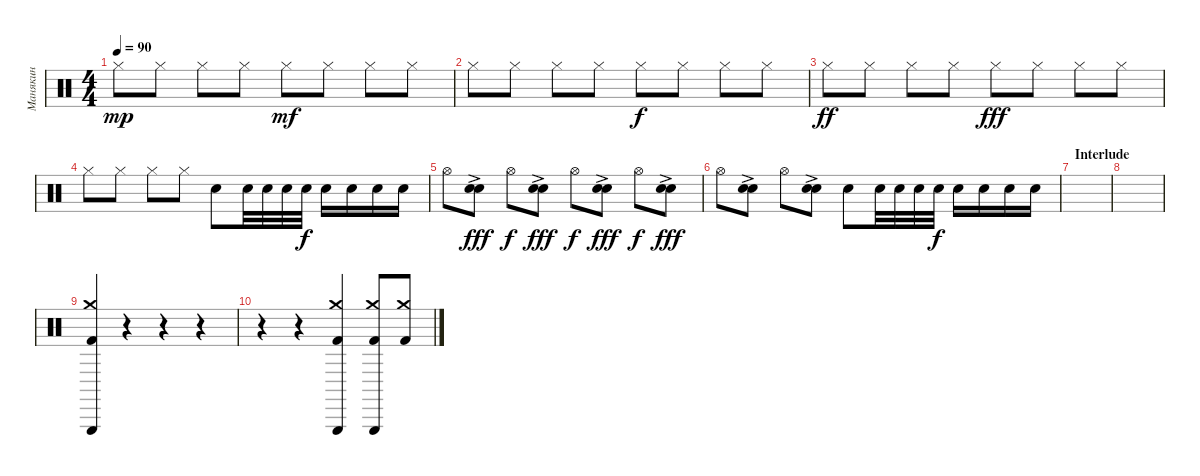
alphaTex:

\track ("Манякин" "Манякин") {instrument percussion}
\staff {score}
\articulation defaults
\ts (4 4)
\tempo 90
\clef neutral
\ks c "Hi-Hat (closed)".8{dy mp} "Hi-Hat (closed)".8 "Hi-Hat (closed)".8 "Hi-Hat (closed)".8 "Hi-Hat (closed)".8{dy mf} "Hi-Hat (closed)".8 "Hi-Hat (closed)".8 "Hi-Hat (closed)".8
|
"Hi-Hat (closed)".8 "Hi-Hat (closed)".8 "Hi-Hat (closed)".8 "Hi-Hat (closed)".8 "Hi-Hat (closed)".8{dy f} "Hi-Hat (closed)".8 "Hi-Hat (closed)".8 "Hi-Hat (closed)".8 |
"Hi-Hat (closed)".8{dy ff} "Hi-Hat (closed)".8 "Hi-Hat (closed)".8 "Hi-Hat (closed)".8 "Hi-Hat (closed)".8{dy fff} "Hi-Hat (closed)".8 "Hi-Hat (closed)".8 "Hi-Hat (closed)".8 |
"Hi-Hat (closed)".8{volume 15} "Hi-Hat (closed)".8 "Hi-Hat (closed)".8 "Hi-Hat (closed)".8 "Electric Snare (hit)".8 "Electric Snare (hit)".32 "Electric Snare (hit)".32 "Electric Snare (hit)".32 "Electric Snare (hit)".32{dy f} "Electric Snare (hit)".16 "Electric Snare (hit)".16 "Electric Snare (hit)".16 "Electric Snare (hit)".16 |
"Hi-Hat (open)".8 ("Electric Snare (hit)"{ac} "Snare (hit) 2").8{dy fff} "Hi-Hat (open)".8{dy f} ("Electric Snare (hit)"{ac} "Snare (hit) 2").8{dy fff} "Hi-Hat (open)".8{dy f} ("Electric Snare (hit)"{ac} "Snare (hit) 2").8{dy fff} "Hi-Hat (open)".8{dy f} ("Electric Snare (hit)"{ac} "Snare (hit) 2").8{dy fff} |
"Hi-Hat (open)".8{volume 15} ("Electric Snare (hit)"{ac} "Snare (hit) 2").8 "Hi-Hat (open)".8 ("Electric Snare (hit)"{ac} "Snare (hit) 2").8 "Electric Snare (hit)".8 "Electric Snare (hit)".32 "Electric Snare (hit)".32 "Electric Snare (hit)".32 "Electric Snare (hit)".32{dy f} "Electric Snare (hit)".16 "Electric Snare (hit)".16 "Electric Snare (hit)".16 "Electric Snare (hit)".16 |
\section ("" "Interlude")
|
|
("Kick (hit) 2" "Crash medium (hit)" "Triangle (hit)").4{volume 15} r.4 r.4 r.4 |
r.4{volume 15} r.4 ("Kick (hit) 2" "Crash medium (hit)" "Triangle (hit)").4 ("Kick (hit) 2" "Crash medium (hit)" "Triangle (hit)").8 ("Kick (hit) 2" "Crash medium (hit)").8
